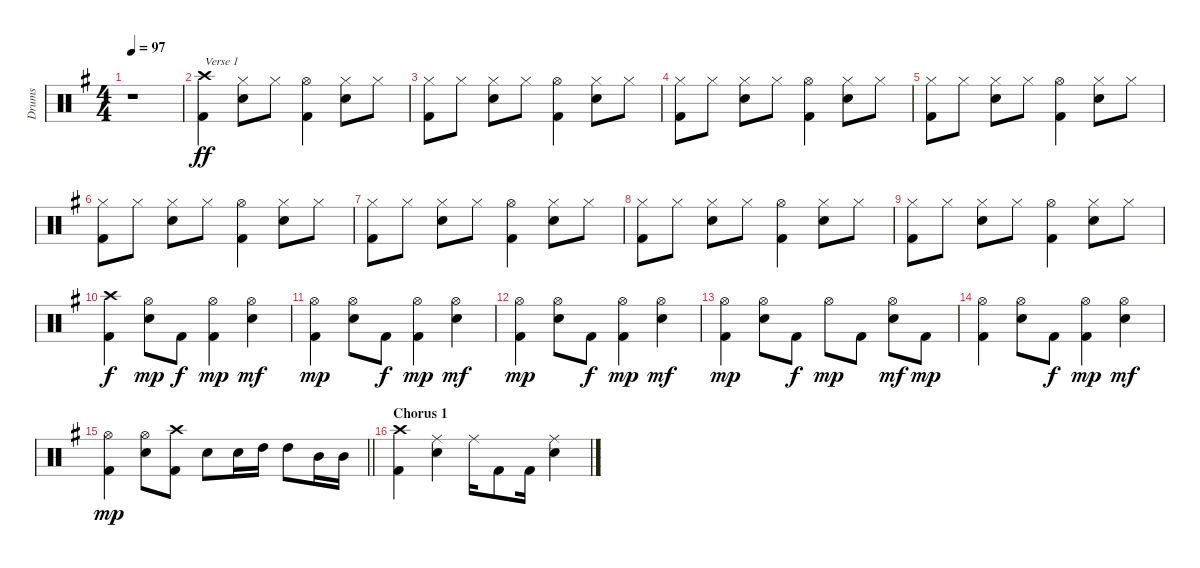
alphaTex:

\track ("Drums" "Drums") {instrument percussion}
\staff {score}
\articulation defaults
\ts (4 4)
\tempo 97
\clef neutral
\ks g
r.1{dy ff} |
("Crash high (hit)" "Kick (hit) 2").4{txt "Verse 1"} ("Electric Snare (hit)" "Hi-Hat (closed)").8 "Hi-Hat (closed)".8 ("Kick (hit) 2" "Hi-Hat (open)").4 ("Electric Snare (hit)" "Hi-Hat (closed)").8 "Hi-Hat (closed)".8 |
("Hi-Hat (closed)" "Kick (hit) 2").8 "Hi-Hat (closed)".8 ("Electric Snare (hit)" "Hi-Hat (closed)").8 "Hi-Hat (closed)".8 ("Hi-Hat (open)" "Kick (hit) 2").4 ("Hi-Hat (closed)" "Electric Snare (hit)").8 "Hi-Hat (closed)".8 |
("Hi-Hat (closed)" "Kick (hit) 2").8 "Hi-Hat (closed)".8 ("Electric Snare (hit)" "Hi-Hat (closed)").8 "Hi-Hat (closed)".8 ("Hi-Hat (open)" "Kick (hit) 2").4 ("Hi-Hat (closed)" "Electric Snare (hit)").8 "Hi-Hat (closed)".8 |
("Hi-Hat (closed)" "Kick (hit) 2").8 "Hi-Hat (closed)".8 ("Electric Snare (hit)" "Hi-Hat (closed)").8 "Hi-Hat (closed)".8 ("Hi-Hat (open)" "Kick (hit) 2").4 ("Hi-Hat (closed)" "Electric Snare (hit)").8 "Hi-Hat (closed)".8 |
("Hi-Hat (closed)" "Kick (hit) 2").8 "Hi-Hat (closed)".8 ("Electric Snare (hit)" "Hi-Hat (closed)").8 "Hi-Hat (closed)".8 ("Hi-Hat (open)" "Kick (hit) 2").4 ("Hi-Hat (closed)" "Electric Snare (hit)").8 "Hi-Hat (closed)".8 |
("Hi-Hat (closed)" "Kick (hit) 2").8 "Hi-Hat (closed)".8 ("Electric Snare (hit)" "Hi-Hat (closed)").8 "Hi-Hat (closed)".8 ("Hi-Hat (open)" "Kick (hit) 2").4 ("Hi-Hat (closed)" "Electric Snare (hit)").8 "Hi-Hat (closed)".8 |
("Hi-Hat (closed)" "Kick (hit) 2").8 "Hi-Hat (closed)".8 ("Electric Snare (hit)" "Hi-Hat (closed)").8 "Hi-Hat (closed)".8 ("Hi-Hat (open)" "Kick (hit) 2").4 ("Hi-Hat (closed)" "Electric Snare (hit)").8 "Hi-Hat (closed)".8 |
("Hi-Hat (closed)" "Kick (hit) 2").8 "Hi-Hat (closed)".8 ("Electric Snare (hit)" "Hi-Hat (closed)").8 "Hi-Hat (closed)".8 ("Hi-Hat (open)" "Kick (hit) 2").4 ("Hi-Hat (closed)" "Electric Snare (hit)").8 "Hi-Hat (closed)".8 |
("Crash high (hit)" "Kick (hit) 2").4{dy f} ("Hi-Hat (open)" "Electric Snare (hit)").8{dy mp} "Kick (hit) 2".8{dy f} ("Hi-Hat (open)" "Kick (hit) 2").4{dy mp} ("Hi-Hat (open)" "Electric Snare (hit)").4{dy mf} |
("Hi-Hat (open)" "Kick (hit) 2").4{dy mp} ("Hi-Hat (open)" "Electric Snare (hit)").8 "Kick (hit) 2".8{dy f} ("Hi-Hat (open)" "Kick (hit) 2").4{dy mp} ("Hi-Hat (open)" "Electric Snare (hit)").4{dy mf} |
("Hi-Hat (open)" "Kick (hit) 2").4{dy mp} ("Hi-Hat (open)" "Electric Snare (hit)").8 "Kick (hit) 2".8{dy f} ("Hi-Hat (open)" "Kick (hit) 2").4{dy mp} ("Hi-Hat (open)" "Electric Snare (hit)").4{dy mf} |
("Hi-Hat (open)" "Kick (hit) 2").4{dy mp} ("Hi-Hat (open)" "Electric Snare (hit)").8 "Kick (hit) 2".8{dy f} "Hi-Hat (open)".8{dy mp} "Kick (hit) 2".8 ("Hi-Hat (open)" "Electric Snare (hit)").8{dy mf} "Kick (hit) 2".8{dy mp} |
("Hi-Hat (open)" "Kick (hit) 2").4 ("Hi-Hat (open)" "Electric Snare (hit)").8 "Kick (hit) 2".8{dy f} ("Hi-Hat (open)" "Kick (hit) 2").4{dy mp} ("Hi-Hat (open)" "Electric Snare (hit)").4{dy mf} |
\barLineRight lightlight
("Hi-Hat (open)" "Kick (hit) 2").4{dy mp} ("Hi-Hat (open)" "Electric Snare (hit)").8 ("Kick (hit) 2" "Crash high (hit)").8 "Electric Snare (hit)".8 "Electric Snare (hit)".16 "High Tom (hit)".16 "High Tom (hit)".8 "Mid Tom (hit)".16 "Mid Tom (hit)".16 |
\section ("" "Chorus 1")
("Crash high (hit)" "Kick (hit) 2").4 ("Ride (middle)" "Electric Snare (hit)").4 "Ride (middle)".16 "Kick (hit) 2".8 "Kick (hit) 2".16 ("Ride (middle)" "Electric Snare (hit)").4
